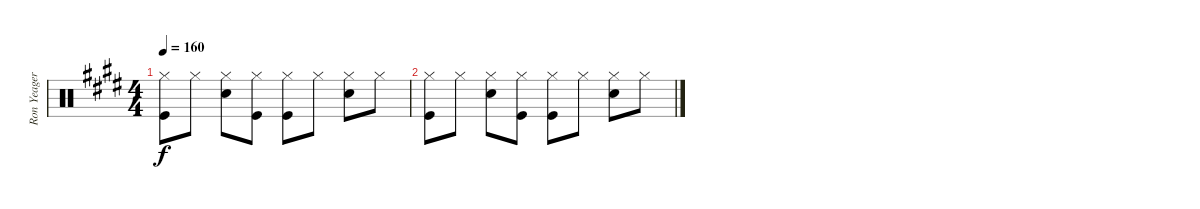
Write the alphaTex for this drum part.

\track ("Ron Yeager Drums" "Ron Yeager") {instrument percussion}
\staff {score}
\articulation defaults
\ts (4 4)
\tempo 160
\clef neutral
\ks e
("Hi-Hat (closed)" "Kick (hit)").8{dy f} "Hi-Hat (closed)".8 ("Hi-Hat (closed)" "Snare (hit) 2").8 ("Hi-Hat (closed)" "Kick (hit)").8 ("Hi-Hat (closed)" "Kick (hit)").8 "Hi-Hat (closed)".8 ("Hi-Hat (closed)" "Snare (hit) 2").8 "Hi-Hat (closed)".8 |
("Hi-Hat (closed)" "Kick (hit)").8 "Hi-Hat (closed)".8 ("Hi-Hat (closed)" "Snare (hit) 2").8 ("Hi-Hat (closed)" "Kick (hit)").8 ("Hi-Hat (closed)" "Kick (hit)").8 "Hi-Hat (closed)".8 ("Hi-Hat (closed)" "Snare (hit) 2").8 "Hi-Hat (closed)".8
